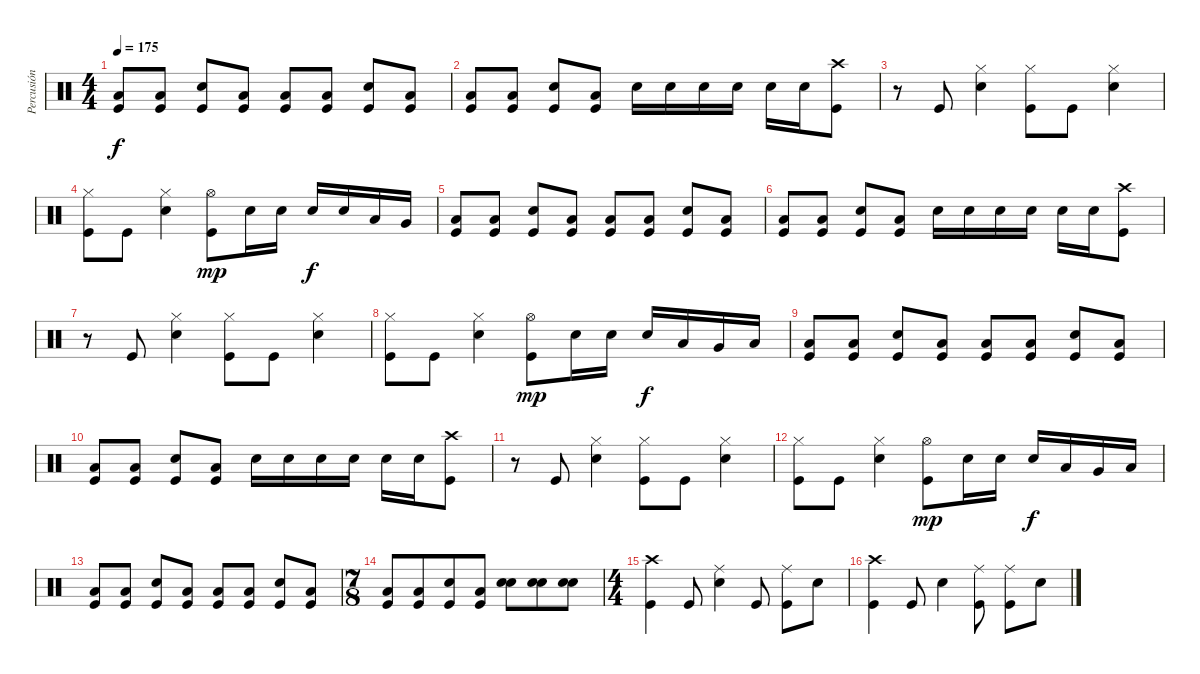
\track ("Percusión" "Percusión") {instrument percussion}
\staff {score}
\articulation defaults
\ts (4 4)
\tempo 175
\clef neutral
\ks c
("Kick (hit)" "Low Floor Tom (hit)").8{dy f} ("Kick (hit)" "Low Floor Tom (hit)").8 ("Kick (hit)" "Snare (hit) 2").8 ("Kick (hit)" "Low Floor Tom (hit)").8 ("Kick (hit)" "Low Floor Tom (hit)").8 ("Kick (hit)" "Low Floor Tom (hit)").8 ("Kick (hit)" "Snare (hit) 2").8 ("Kick (hit)" "Low Floor Tom (hit)").8 |
("Kick (hit)" "Low Floor Tom (hit)").8 ("Kick (hit)" "Low Floor Tom (hit)").8 ("Kick (hit)" "Snare (hit) 2").8 ("Kick (hit)" "Low Floor Tom (hit)").8 "Snare (hit) 2".16 "Snare (hit) 2".16 "Snare (hit) 2".16 "Snare (hit) 2".16 "Snare (hit) 2".16 "Snare (hit) 2".16 ("Kick (hit)" "Crash high (hit)").8 |
r.8 "Kick (hit)".8 ("Snare (hit) 2" "Hi-Hat (closed)").4 ("Kick (hit)" "Hi-Hat (closed)").8 "Kick (hit)".8 ("Snare (hit) 2" "Hi-Hat (closed)").4 |
("Kick (hit)" "Hi-Hat (closed)").8 "Kick (hit)".8 ("Snare (hit) 2" "Hi-Hat (closed)").4 ("Kick (hit)" "Hi-Hat (open)").8{dy mp} "Snare (hit) 2".16 "Snare (hit) 2".16 "Snare (hit) 2".16{dy f} "Snare (hit) 2".16 "Low Tom (hit)".16 "Very Low Tom (hit)".16 |
("Kick (hit)" "Low Floor Tom (hit)").8 ("Kick (hit)" "Low Floor Tom (hit)").8 ("Kick (hit)" "Snare (hit) 2").8 ("Kick (hit)" "Low Floor Tom (hit)").8 ("Kick (hit)" "Low Floor Tom (hit)").8 ("Kick (hit)" "Low Floor Tom (hit)").8 ("Kick (hit)" "Snare (hit) 2").8 ("Kick (hit)" "Low Floor Tom (hit)").8 |
("Kick (hit)" "Low Floor Tom (hit)").8 ("Kick (hit)" "Low Floor Tom (hit)").8 ("Kick (hit)" "Snare (hit) 2").8 ("Kick (hit)" "Low Floor Tom (hit)").8 "Snare (hit) 2".16 "Snare (hit) 2".16 "Snare (hit) 2".16 "Snare (hit) 2".16 "Snare (hit) 2".16 "Snare (hit) 2".16 ("Kick (hit)" "Crash high (hit)").8 |
r.8 "Kick (hit)".8 ("Snare (hit) 2" "Hi-Hat (closed)").4 ("Kick (hit)" "Hi-Hat (closed)").8 "Kick (hit)".8 ("Snare (hit) 2" "Hi-Hat (closed)").4 |
("Kick (hit)" "Hi-Hat (closed)").8 "Kick (hit)".8 ("Snare (hit) 2" "Hi-Hat (closed)").4 ("Kick (hit)" "Hi-Hat (open)").8{dy mp} "Snare (hit) 2".16 "Snare (hit) 2".16 "Snare (hit) 2".16{dy f} "Low Tom (hit)".16 "Very Low Tom (hit)".16 "Low Floor Tom (hit)".16 |
("Kick (hit)" "Low Floor Tom (hit)").8 ("Kick (hit)" "Low Floor Tom (hit)").8 ("Kick (hit)" "Snare (hit) 2").8 ("Kick (hit)" "Low Floor Tom (hit)").8 ("Kick (hit)" "Low Floor Tom (hit)").8 ("Kick (hit)" "Low Floor Tom (hit)").8 ("Kick (hit)" "Snare (hit) 2").8 ("Kick (hit)" "Low Floor Tom (hit)").8 |
("Kick (hit)" "Low Floor Tom (hit)").8 ("Kick (hit)" "Low Floor Tom (hit)").8 ("Kick (hit)" "Snare (hit) 2").8 ("Kick (hit)" "Low Floor Tom (hit)").8 "Snare (hit) 2".16 "Snare (hit) 2".16 "Snare (hit) 2".16 "Snare (hit) 2".16 "Snare (hit) 2".16 "Snare (hit) 2".16 ("Kick (hit)" "Crash high (hit)").8 |
r.8 "Kick (hit)".8 ("Snare (hit) 2" "Hi-Hat (closed)").4 ("Kick (hit)" "Hi-Hat (closed)").8 "Kick (hit)".8 ("Snare (hit) 2" "Hi-Hat (closed)").4 |
("Kick (hit)" "Hi-Hat (closed)").8 "Kick (hit)".8 ("Snare (hit) 2" "Hi-Hat (closed)").4 ("Kick (hit)" "Hi-Hat (open)").8{dy mp} "Snare (hit) 2".16 "Snare (hit) 2".16 "Snare (hit) 2".16{dy f} "Low Tom (hit)".16 "Very Low Tom (hit)".16 "Low Floor Tom (hit)".16 |
("Kick (hit)" "Low Floor Tom (hit)").8 ("Kick (hit)" "Low Floor Tom (hit)").8 ("Kick (hit)" "Snare (hit) 2").8 ("Kick (hit)" "Low Floor Tom (hit)").8 ("Kick (hit)" "Low Floor Tom (hit)").8 ("Kick (hit)" "Low Floor Tom (hit)").8 ("Kick (hit)" "Snare (hit) 2").8 ("Kick (hit)" "Low Floor Tom (hit)").8 |
\ts (7 8)
("Kick (hit)" "Low Floor Tom (hit)").8 ("Kick (hit)" "Low Floor Tom (hit)").8 ("Kick (hit)" "Snare (hit) 2").8 ("Kick (hit)" "Low Floor Tom (hit)").8 ("Snare (hit) 2" "Snare (hit) 2").8 ("Snare (hit) 2" "Snare (hit) 2").8 ("Snare (hit) 2" "Snare (hit) 2").8 |
\ts (4 4)
("Kick (hit)" "Crash high (hit)").4 "Kick (hit)".8 ("Snare (hit) 2" "Ride (middle)").4 "Kick (hit)".8 ("Kick (hit)" "Ride (middle)").8 "Snare (hit) 2".8 |
("Kick (hit)" "Crash high (hit)").4 "Kick (hit)".8 "Snare (hit) 2".4 ("Kick (hit)" "Ride (middle)").8 ("Kick (hit)" "Ride (middle)").8 "Snare (hit) 2".8
